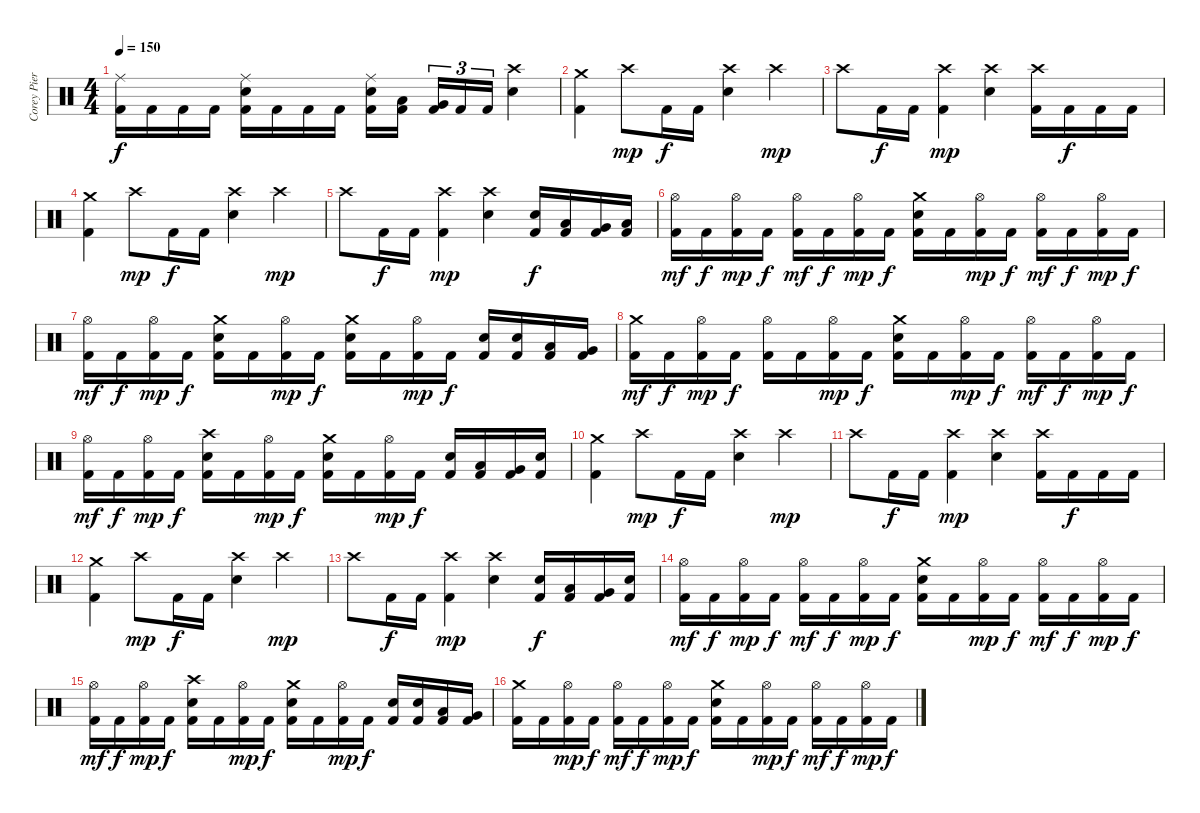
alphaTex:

\track ("Corey Pierce" "Corey Pier") {instrument percussion}
\staff {score}
\articulation defaults
\ts (4 4)
\tempo 150
\clef neutral
\ks c
("Ride (middle)" "Kick (hit) 2").16{dy f} "Kick (hit) 2".16 "Kick (hit) 2".16 "Kick (hit) 2".16 ("Ride (middle)" "Electric Snare (hit)" "Kick (hit) 2").16 "Kick (hit) 2".16 "Kick (hit) 2".16 "Kick (hit) 2".16 ("Ride (middle)" "Electric Snare (hit)" "Kick (hit) 2").16 ("Low Tom (hit)" "Kick (hit) 2").16 ("Very Low Tom (hit)" "Kick (hit) 2").16{tu (3 2)} "Kick (hit) 2".16{tu (3 2)} "Kick (hit) 2".16{tu (3 2)} ("Crash high (hit)" "Electric Snare (hit)").4 |
("Crash medium (hit)" "Kick (hit) 2").4 "Crash high (hit)".8{dy mp} "Kick (hit) 2".16{dy f} "Kick (hit) 2".16 ("Crash high (hit)" "Electric Snare (hit)").4 "Crash high (hit)".4{dy mp} |
"Crash high (hit)".8 "Kick (hit) 2".16{dy f} "Kick (hit) 2".16 ("Crash high (hit)" "Kick (hit) 2").4{dy mp} ("Crash high (hit)" "Electric Snare (hit)").4 ("Crash high (hit)" "Kick (hit) 2").16 "Kick (hit) 2".16{dy f} "Kick (hit) 2".16 "Kick (hit) 2".16 |
("Crash medium (hit)" "Kick (hit) 2").4 "Crash high (hit)".8{dy mp} "Kick (hit) 2".16{dy f} "Kick (hit) 2".16 ("Crash high (hit)" "Electric Snare (hit)").4 "Crash high (hit)".4{dy mp} |
"Crash high (hit)".8 "Kick (hit) 2".16{dy f} "Kick (hit) 2".16 ("Crash high (hit)" "Kick (hit) 2").4{dy mp} ("Crash high (hit)" "Electric Snare (hit)").4 ("Electric Snare (hit)" "Kick (hit) 2").16{dy f} ("Low Tom (hit)" "Kick (hit) 2").16 ("Very Low Tom (hit)" "Kick (hit) 2").16 ("Low Floor Tom (hit)" "Kick (hit) 2").16 |
("Hi-Hat (open)" "Kick (hit) 2").16{dy mf} "Kick (hit) 2".16{dy f} ("Hi-Hat (open)" "Kick (hit) 2").16{dy mp} "Kick (hit) 2".16{dy f} ("Hi-Hat (open)" "Kick (hit) 2").16{dy mf} "Kick (hit) 2".16{dy f} ("Hi-Hat (open)" "Kick (hit) 2").16{dy mp} "Kick (hit) 2".16{dy f} ("Crash medium (hit)" "Electric Snare (hit)" "Kick (hit) 2").16 "Kick (hit) 2".16 ("Hi-Hat (open)" "Kick (hit) 2").16{dy mp} "Kick (hit) 2".16{dy f} ("Hi-Hat (open)" "Kick (hit) 2").16{dy mf} "Kick (hit) 2".16{dy f} ("Hi-Hat (open)" "Kick (hit) 2").16{dy mp} "Kick (hit) 2".16{dy f} |
("Hi-Hat (open)" "Kick (hit) 2").16{dy mf} "Kick (hit) 2".16{dy f} ("Hi-Hat (open)" "Kick (hit) 2").16{dy mp} "Kick (hit) 2".16{dy f} ("Crash medium (hit)" "Electric Snare (hit)" "Kick (hit) 2").16 "Kick (hit) 2".16 ("Hi-Hat (open)" "Kick (hit) 2").16{dy mp} "Kick (hit) 2".16{dy f} ("Crash medium (hit)" "Electric Snare (hit)" "Kick (hit) 2").16 "Kick (hit) 2".16 ("Hi-Hat (open)" "Kick (hit) 2").16{dy mp} "Kick (hit) 2".16{dy f} ("Electric Snare (hit)" "Kick (hit) 2").16 ("Electric Snare (hit)" "Kick (hit) 2").16 ("Low Tom (hit)" "Kick (hit) 2").16 ("Very Low Tom (hit)" "Kick (hit) 2").16 |
("Crash medium (hit)" "Kick (hit) 2").16{dy mf} "Kick (hit) 2".16{dy f} ("Hi-Hat (open)" "Kick (hit) 2").16{dy mp} "Kick (hit) 2".16{dy f} ("Hi-Hat (open)" "Kick (hit) 2").16 "Kick (hit) 2".16 ("Hi-Hat (open)" "Kick (hit) 2").16{dy mp} "Kick (hit) 2".16{dy f} ("Crash medium (hit)" "Electric Snare (hit)" "Kick (hit) 2").16 "Kick (hit) 2".16 ("Hi-Hat (open)" "Kick (hit) 2").16{dy mp} "Kick (hit) 2".16{dy f} ("Hi-Hat (open)" "Kick (hit) 2").16{dy mf} "Kick (hit) 2".16{dy f} ("Hi-Hat (open)" "Kick (hit) 2").16{dy mp} "Kick (hit) 2".16{dy f} |
("Hi-Hat (open)" "Kick (hit) 2").16{dy mf} "Kick (hit) 2".16{dy f} ("Hi-Hat (open)" "Kick (hit) 2").16{dy mp} "Kick (hit) 2".16{dy f} ("Crash high (hit)" "Electric Snare (hit)" "Kick (hit) 2").16 "Kick (hit) 2".16 ("Hi-Hat (open)" "Kick (hit) 2").16{dy mp} "Kick (hit) 2".16{dy f} ("Crash medium (hit)" "Electric Snare (hit)" "Kick (hit) 2").16 "Kick (hit) 2".16 ("Hi-Hat (open)" "Kick (hit) 2").16{dy mp} "Kick (hit) 2".16{dy f} ("Electric Snare (hit)" "Kick (hit) 2").16 ("Low Tom (hit)" "Kick (hit) 2").16 ("Very Low Tom (hit)" "Kick (hit) 2").16 ("Electric Snare (hit)" "Kick (hit) 2").16 |
("Crash medium (hit)" "Kick (hit) 2").4 "Crash high (hit)".8{dy mp} "Kick (hit) 2".16{dy f} "Kick (hit) 2".16 ("Crash high (hit)" "Electric Snare (hit)").4 "Crash high (hit)".4{dy mp} |
"Crash high (hit)".8 "Kick (hit) 2".16{dy f} "Kick (hit) 2".16 ("Crash high (hit)" "Kick (hit) 2").4{dy mp} ("Crash high (hit)" "Electric Snare (hit)").4 ("Crash high (hit)" "Kick (hit) 2").16 "Kick (hit) 2".16{dy f} "Kick (hit) 2".16 "Kick (hit) 2".16 |
("Crash medium (hit)" "Kick (hit) 2").4 "Crash high (hit)".8{dy mp} "Kick (hit) 2".16{dy f} "Kick (hit) 2".16 ("Crash high (hit)" "Electric Snare (hit)").4 "Crash high (hit)".4{dy mp} |
"Crash high (hit)".8 "Kick (hit) 2".16{dy f} "Kick (hit) 2".16 ("Crash high (hit)" "Kick (hit) 2").4{dy mp} ("Crash high (hit)" "Electric Snare (hit)").4 ("Electric Snare (hit)" "Kick (hit) 2").16{dy f} ("Low Tom (hit)" "Kick (hit) 2").16 ("Very Low Tom (hit)" "Kick (hit) 2").16 ("Electric Snare (hit)" "Kick (hit) 2").16 |
("Hi-Hat (open)" "Kick (hit) 2").16{dy mf} "Kick (hit) 2".16{dy f} ("Hi-Hat (open)" "Kick (hit) 2").16{dy mp} "Kick (hit) 2".16{dy f} ("Hi-Hat (open)" "Kick (hit) 2").16{dy mf} "Kick (hit) 2".16{dy f} ("Hi-Hat (open)" "Kick (hit) 2").16{dy mp} "Kick (hit) 2".16{dy f} ("Crash medium (hit)" "Electric Snare (hit)" "Kick (hit) 2").16 "Kick (hit) 2".16 ("Hi-Hat (open)" "Kick (hit) 2").16{dy mp} "Kick (hit) 2".16{dy f} ("Hi-Hat (open)" "Kick (hit) 2").16{dy mf} "Kick (hit) 2".16{dy f} ("Hi-Hat (open)" "Kick (hit) 2").16{dy mp} "Kick (hit) 2".16{dy f} |
("Hi-Hat (open)" "Kick (hit) 2").16{dy mf} "Kick (hit) 2".16{dy f} ("Hi-Hat (open)" "Kick (hit) 2").16{dy mp} "Kick (hit) 2".16{dy f} ("Crash high (hit)" "Electric Snare (hit)" "Kick (hit) 2").16 "Kick (hit) 2".16 ("Hi-Hat (open)" "Kick (hit) 2").16{dy mp} "Kick (hit) 2".16{dy f} ("Crash medium (hit)" "Electric Snare (hit)" "Kick (hit) 2").16 "Kick (hit) 2".16 ("Hi-Hat (open)" "Kick (hit) 2").16{dy mp} "Kick (hit) 2".16{dy f} ("Electric Snare (hit)" "Kick (hit) 2").16 ("Electric Snare (hit)" "Kick (hit) 2").16 ("Low Tom (hit)" "Kick (hit) 2").16 ("Very Low Tom (hit)" "Kick (hit) 2").16 |
("Crash medium (hit)" "Kick (hit) 2").16 "Kick (hit) 2".16 ("Hi-Hat (open)" "Kick (hit) 2").16{dy mp} "Kick (hit) 2".16{dy f} ("Hi-Hat (open)" "Kick (hit) 2").16{dy mf} "Kick (hit) 2".16{dy f} ("Hi-Hat (open)" "Kick (hit) 2").16{dy mp} "Kick (hit) 2".16{dy f} ("Crash medium (hit)" "Electric Snare (hit)" "Kick (hit) 2").16 "Kick (hit) 2".16 ("Hi-Hat (open)" "Kick (hit) 2").16{dy mp} "Kick (hit) 2".16{dy f} ("Hi-Hat (open)" "Kick (hit) 2").16{dy mf} "Kick (hit) 2".16{dy f} ("Hi-Hat (open)" "Kick (hit) 2").16{dy mp} "Kick (hit) 2".16{dy f}
